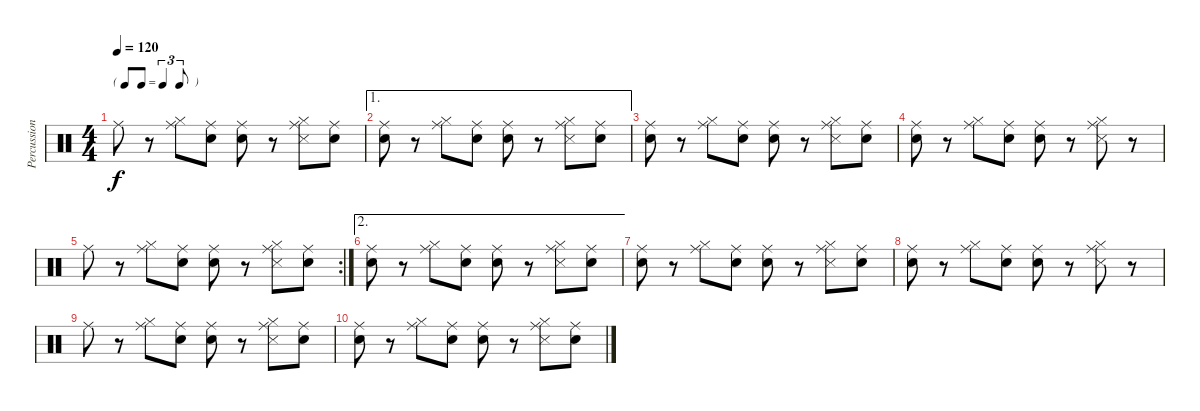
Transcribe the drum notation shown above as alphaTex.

\track ("Percussions" "Percussion") {instrument percussion}
\staff {score}
\articulation defaults
\ts (4 4)
\tf triplet8th
\tempo 120
\clef neutral
\ks c "Ride (middle)".8{dy f}
r.8 ("Hi-Hat (closed)" "Ride (middle)").8 ("Snare (hit)" "Ride (middle)").8 ("Snare (hit)" "Ride (middle)").8 r.8 ("Hi-Hat (closed)" "Snare (side stick) 3" "Ride (middle)").8 ("Snare (hit)" "Ride (middle)").8 |
\ae 1
("Snare (hit)" "Ride (middle)").8 r.8 ("Hi-Hat (closed)" "Ride (middle)").8 ("Snare (hit)" "Ride (middle)").8 ("Snare (hit)" "Ride (middle)").8 r.8 ("Hi-Hat (closed)" "Snare (side stick) 3" "Ride (middle)").8 ("Snare (hit)" "Ride (middle)").8 |
("Snare (hit)" "Ride (middle)").8 r.8 ("Hi-Hat (closed)" "Ride (middle)").8 ("Snare (hit)" "Ride (middle)").8 ("Snare (hit)" "Ride (middle)").8 r.8 ("Hi-Hat (closed)" "Snare (side stick) 3" "Ride (middle)").8 ("Snare (hit)" "Ride (middle)").8 |
("Snare (hit)" "Ride (middle)").8 r.8 ("Hi-Hat (closed)" "Ride (middle)").8 ("Snare (hit)" "Ride (middle)").8 ("Snare (hit)" "Ride (middle)").8 r.8 ("Hi-Hat (closed)" "Snare (side stick) 3" "Ride (middle)").8 r.8 |
\rc 2 "Ride (middle)".8
r.8 ("Hi-Hat (closed)" "Ride (middle)").8 ("Snare (hit)" "Ride (middle)").8 ("Snare (hit)" "Ride (middle)").8 r.8 ("Hi-Hat (closed)" "Snare (side stick) 3" "Ride (middle)").8 ("Snare (hit)" "Ride (middle)").8 |
\ae 2
("Snare (hit)" "Ride (middle)").8 r.8 ("Hi-Hat (closed)" "Ride (middle)").8 ("Snare (hit)" "Ride (middle)").8 ("Snare (hit)" "Ride (middle)").8 r.8 ("Hi-Hat (closed)" "Snare (side stick) 3" "Ride (middle)").8 ("Snare (hit)" "Ride (middle)").8 |
("Snare (hit)" "Ride (middle)").8 r.8 ("Hi-Hat (closed)" "Ride (middle)").8 ("Snare (hit)" "Ride (middle)").8 ("Snare (hit)" "Ride (middle)").8 r.8 ("Hi-Hat (closed)" "Snare (side stick) 3" "Ride (middle)").8 ("Snare (hit)" "Ride (middle)").8 |
("Snare (hit)" "Ride (middle)").8 r.8 ("Hi-Hat (closed)" "Ride (middle)").8 ("Snare (hit)" "Ride (middle)").8 ("Snare (hit)" "Ride (middle)").8 r.8 ("Hi-Hat (closed)" "Snare (side stick) 3" "Ride (middle)").8 r.8 |
"Ride (middle)".8 r.8 ("Hi-Hat (closed)" "Ride (middle)").8 ("Snare (hit)" "Ride (middle)").8 ("Snare (hit)" "Ride (middle)").8 r.8 ("Hi-Hat (closed)" "Snare (side stick) 3" "Ride (middle)").8 ("Snare (hit)" "Ride (middle)").8 |
("Snare (hit)" "Ride (middle)").8 r.8 ("Hi-Hat (closed)" "Ride (middle)").8 ("Snare (hit)" "Ride (middle)").8 ("Snare (hit)" "Ride (middle)").8 r.8 ("Hi-Hat (closed)" "Snare (side stick) 3" "Ride (middle)").8 ("Snare (hit)" "Ride (middle)").8
